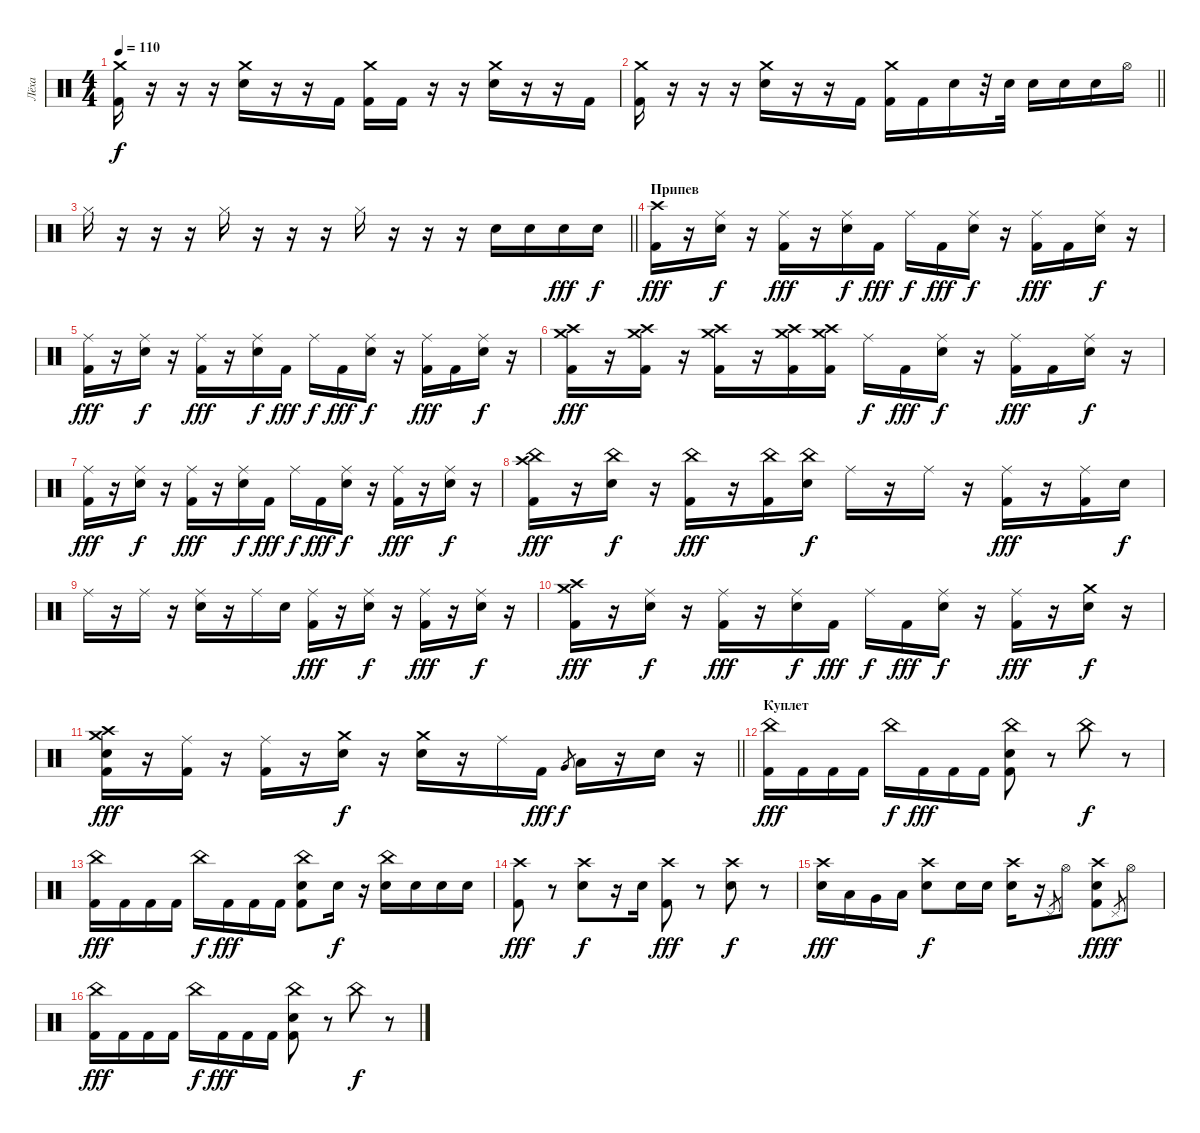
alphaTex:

\track ("Лёха" "Лёха") {instrument percussion}
\staff {score}
\articulation defaults
\ts (4 4)
\tempo 110
\clef neutral
\ks c
("Crash medium (hit)" "Kick (hit) 2").16{dy f} r.16 r.16 r.16 ("Crash medium (hit)" "Electric Snare (hit)").16 r.16 r.16 "Kick (hit) 2".16 ("Crash medium (hit)" "Kick (hit) 2").16 "Kick (hit) 2".16 r.16 r.16 ("Crash medium (hit)" "Electric Snare (hit)").16 r.16 r.16 "Kick (hit) 2".16 |
\barLineRight lightlight
("Crash medium (hit)" "Kick (hit) 2").16 r.16 r.16 r.16 ("Crash medium (hit)" "Electric Snare (hit)").16 r.16 r.16 "Kick (hit) 2".16 ("Crash medium (hit)" "Kick (hit) 2").16 "Kick (hit) 2".16 "Electric Snare (hit)".16 r.32 "Electric Snare (hit)".32 "Electric Snare (hit)".16 "Electric Snare (hit)".16 "Electric Snare (hit)".16 "Hi-Hat (open)".16 |
\section ("" "")
\barLineRight lightlight "Hi-Hat (closed)".16
r.16 r.16 r.16 "Hi-Hat (closed)".16 r.16 r.16 r.16 "Hi-Hat (closed)".16 r.16 r.16 r.16 "Electric Snare (hit)".16 "Electric Snare (hit)".16 "Electric Snare (hit)".16{dy fff} "Electric Snare (hit)".16{dy f} |
\section ("" "Припев")
("Crash high (hit)" "Kick (hit) 2").16{dy fff} r.16 ("Ride (middle)" "Electric Snare (hit)").16{dy f} r.16 ("Ride (middle)" "Kick (hit) 2").16{dy fff} r.16 ("Ride (middle)" "Electric Snare (hit)").16{dy f} "Kick (hit) 2".16{dy fff} "Ride (middle)".16{dy f} "Kick (hit) 2".16{dy fff} ("Ride (middle)" "Electric Snare (hit)").16{dy f} r.16 ("Ride (middle)" "Kick (hit) 2").16{dy fff} "Kick (hit) 2".16 ("Ride (middle)" "Electric Snare (hit)").16{dy f} r.16 |
("Ride (middle)" "Kick (hit) 2").16{dy fff} r.16 ("Ride (middle)" "Electric Snare (hit)").16{dy f} r.16 ("Ride (middle)" "Kick (hit) 2").16{dy fff} r.16 ("Ride (middle)" "Electric Snare (hit)").16{dy f} "Kick (hit) 2".16{dy fff} "Ride (middle)".16{dy f} "Kick (hit) 2".16{dy fff} ("Ride (middle)" "Electric Snare (hit)").16{dy f} r.16 ("Ride (middle)" "Kick (hit) 2").16{dy fff} "Kick (hit) 2".16 ("Ride (middle)" "Electric Snare (hit)").16{dy f} r.16 |
("Crash high (hit)" "Crash medium (hit)" "Kick (hit) 2").16{dy fff} r.16 ("Crash high (hit)" "Crash medium (hit)" "Kick (hit) 2").16 r.16 ("Crash high (hit)" "Crash medium (hit)" "Kick (hit) 2").16 r.16 ("Crash high (hit)" "Crash medium (hit)" "Kick (hit) 2").16 ("Crash high (hit)" "Crash medium (hit)" "Kick (hit) 2").16 "Ride (middle)".16{dy f} "Kick (hit) 2".16{dy fff} ("Ride (middle)" "Electric Snare (hit)").16{dy f} r.16 ("Ride (middle)" "Kick (hit) 2").16{dy fff} "Kick (hit) 2".16 ("Ride (middle)" "Electric Snare (hit)").16{dy f} r.16 |
("Ride (middle)" "Kick (hit) 2").16{dy fff} r.16 ("Ride (middle)" "Electric Snare (hit)").16{dy f} r.16 ("Ride (middle)" "Kick (hit) 2").16{dy fff} r.16 ("Ride (middle)" "Electric Snare (hit)").16{dy f} "Kick (hit) 2".16{dy fff} "Ride (middle)".16{dy f} "Kick (hit) 2".16{dy fff} ("Ride (middle)" "Electric Snare (hit)").16{dy f} r.16 ("Ride (middle)" "Kick (hit) 2").16{dy fff} r.16 ("Ride (middle)" "Electric Snare (hit)").16{dy f} r.16 |
("China (hit)" "Crash high (hit)" "Kick (hit) 2").16{dy fff} r.16 ("China (hit)" "Electric Snare (hit)").16{dy f} r.16 ("China (hit)" "Kick (hit) 2").16{dy fff} r.16 ("China (hit)" "Kick (hit) 2").16 ("China (hit)" "Electric Snare (hit)").16{dy f} "Ride (middle)".16 r.16 "Ride (middle)".16 r.16 ("Ride (middle)" "Kick (hit) 2").16{dy fff} r.16 ("Ride (middle)" "Kick (hit) 2").16 "Electric Snare (hit)".16{dy f} |
"Ride (middle)".16 r.16 "Ride (middle)".16 r.16 ("Ride (middle)" "Electric Snare (hit)").16 r.16 "Ride (middle)".16 "Electric Snare (hit)".16 ("Ride (middle)" "Kick (hit) 2").16{dy fff} r.16 ("Ride (middle)" "Electric Snare (hit)").16{dy f} r.16 ("Ride (middle)" "Kick (hit) 2").16{dy fff} r.16 ("Ride (middle)" "Electric Snare (hit)").16{dy f} r.16 |
("Crash high (hit)" "Crash medium (hit)" "Kick (hit) 2").16{dy fff} r.16 ("Ride (middle)" "Electric Snare (hit)").16{dy f} r.16 ("Ride (middle)" "Kick (hit) 2").16{dy fff} r.16 ("Ride (middle)" "Electric Snare (hit)").16{dy f} "Kick (hit) 2".16{dy fff} "Ride (middle)".16{dy f} "Kick (hit) 2".16{dy fff} ("Ride (middle)" "Electric Snare (hit)").16{dy f} r.16 ("Ride (middle)" "Kick (hit) 2").16{dy fff} r.16 ("Crash medium (hit)" "Electric Snare (hit)").16{dy f} r.16 |
\barLineRight lightlight
("Crash medium (hit)" "Crash high (hit)" "Electric Snare (hit)" "Kick (hit) 2").16{dy fff} r.16 ("Ride (middle)" "Kick (hit) 2").16 r.16 ("Ride (middle)" "Kick (hit) 2").16 r.16 ("Crash medium (hit)" "Electric Snare (hit)").16{dy f} r.16 ("Crash medium (hit)" "Electric Snare (hit)").16 r.16 "Ride (middle)".16 "Kick (hit) 2".16{dy fff} "Very Low Tom (hit)".8{gr dy f} "Low Floor Tom (hit)".16 r.16 "Electric Snare (hit)".16 r.16 |
\section ("" "Куплет")
("China (hit)" "Kick (hit) 2").16{dy fff} "Kick (hit) 2".16 "Kick (hit) 2".16 "Kick (hit) 2".16 "China (hit)".16{dy f} "Kick (hit) 2".16{dy fff} "Kick (hit) 2".16 "Kick (hit) 2".16 ("China (hit)" "Electric Snare (hit)" "Kick (hit) 2").8 r.8 "China (hit)".8{dy f} r.8 |
("China (hit)" "Kick (hit) 2").16{dy fff} "Kick (hit) 2".16 "Kick (hit) 2".16 "Kick (hit) 2".16 "China (hit)".16{dy f} "Kick (hit) 2".16{dy fff} "Kick (hit) 2".16 "Kick (hit) 2".16 ("China (hit)" "Electric Snare (hit)" "Kick (hit) 2").8 "Electric Snare (hit)".16{dy f} r.16 ("China (hit)" "Electric Snare (hit)").16 "Electric Snare (hit)".16 "Electric Snare (hit)".16 "Electric Snare (hit)".16 |
("Crash high (hit)" "Kick (hit) 2").8{dy fff} r.8 ("Crash high (hit)" "Electric Snare (hit)").8{dy f} r.16 "Electric Snare (hit)".16 ("Crash high (hit)" "Kick (hit) 2").8{dy fff} r.8 ("Crash high (hit)" "Electric Snare (hit)").8{dy f} r.8 |
("Crash high (hit)" "Electric Snare (hit)").16{dy fff} "Low Tom (hit)".16 "Very Low Tom (hit)".16 "Low Floor Tom (hit)".16 ("Crash high (hit)" "Electric Snare (hit)").8{dy f} "Electric Snare (hit)".16 "Electric Snare (hit)".16 ("Crash high (hit)" "Electric Snare (hit)").16 r.16 "Pedal Hi-Hat (hit)".8{gr} "Hi-Hat (open)".8 ("Crash high (hit)" "Electric Snare (hit)" "Kick (hit) 2").8{dy fff} "Pedal Hi-Hat (hit)".8{gr dy f} "Hi-Hat (open)".8 |
("China (hit)" "Kick (hit) 2").16{dy fff} "Kick (hit) 2".16 "Kick (hit) 2".16 "Kick (hit) 2".16 "China (hit)".16{dy f} "Kick (hit) 2".16{dy fff} "Kick (hit) 2".16 "Kick (hit) 2".16 ("China (hit)" "Electric Snare (hit)" "Kick (hit) 2").8 r.8 "China (hit)".8{dy f} r.8
